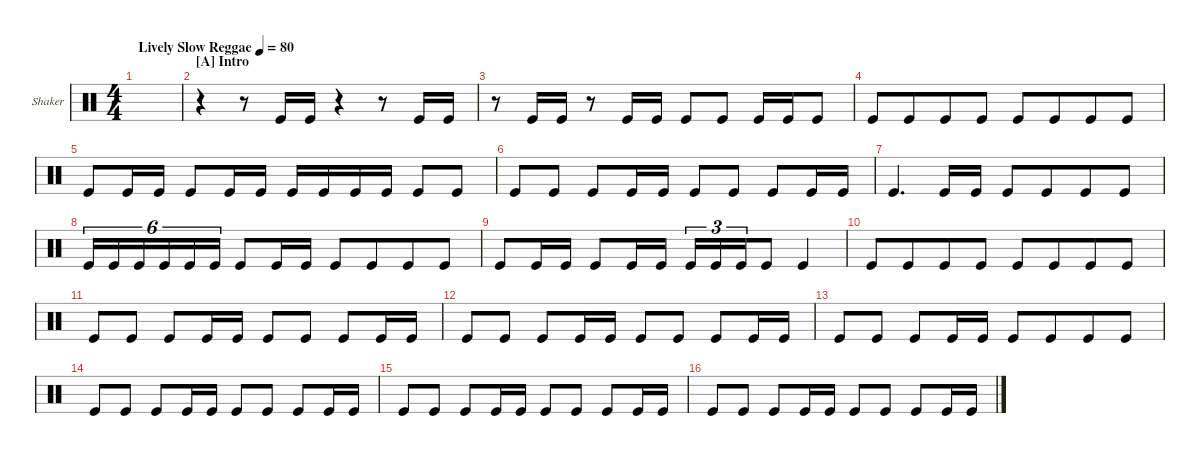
\defaultSystemsLayout 4
\hideDynamics
\bracketExtendMode groupsimilarinstruments
\firstSystemTrackNameOrientation horizontal
\otherSystemsTrackNameOrientation horizontal
\track ("Shaker" "Shaker") {multiBarRest instrument percussion}
\staff {score}
\articulation defaults
\ts (4 4)
\ac
\tempo (80 "Lively Slow Reggae")
\clef neutral
\ks c
|
\section ("A" "Intro")
r.4 r.8 "Kick (hit)".16 "Kick (hit)".16 r.4 r.8 "Kick (hit)".16 "Kick (hit)".16 |
r.8 "Kick (hit)".16 "Kick (hit)".16 r.8 "Kick (hit)".16 "Kick (hit)".16 "Kick (hit)".8 "Kick (hit)".8 "Kick (hit)".16 "Kick (hit)".16 "Kick (hit)".8 |
"Kick (hit)".8 "Kick (hit)".8{beam merge} "Kick (hit)".8 "Kick (hit)".8 "Kick (hit)".8 "Kick (hit)".8{beam merge} "Kick (hit)".8 "Kick (hit)".8 |
"Kick (hit)".8 "Kick (hit)".16 "Kick (hit)".16 "Kick (hit)".8 "Kick (hit)".16 "Kick (hit)".16 "Kick (hit)".16 "Kick (hit)".16 "Kick (hit)".16 "Kick (hit)".16 "Kick (hit)".8 "Kick (hit)".8 |
"Kick (hit)".8 "Kick (hit)".8 "Kick (hit)".8 "Kick (hit)".16 "Kick (hit)".16 "Kick (hit)".8 "Kick (hit)".8 "Kick (hit)".8 "Kick (hit)".16 "Kick (hit)".16 |
"Kick (hit)".4{d} "Kick (hit)".16 "Kick (hit)".16 "Kick (hit)".8 "Kick (hit)".8{beam merge} "Kick (hit)".8 "Kick (hit)".8 |
"Kick (hit)".16{tu (6 4)} "Kick (hit)".16{tu (6 4)} "Kick (hit)".16{tu (6 4)} "Kick (hit)".16{tu (6 4)} "Kick (hit)".16{tu (6 4)} "Kick (hit)".16{tu (6 4)} "Kick (hit)".8 "Kick (hit)".16 "Kick (hit)".16 "Kick (hit)".8 "Kick (hit)".8{beam merge} "Kick (hit)".8 "Kick (hit)".8 |
"Kick (hit)".8 "Kick (hit)".16 "Kick (hit)".16 "Kick (hit)".8 "Kick (hit)".16 "Kick (hit)".16 "Kick (hit)".16{tu (3 2)} "Kick (hit)".16{tu (3 2)} "Kick (hit)".16{tu (3 2) beam merge} "Kick (hit)".8 "Kick (hit)".4 |
"Kick (hit)".8 "Kick (hit)".8{beam merge} "Kick (hit)".8 "Kick (hit)".8 "Kick (hit)".8 "Kick (hit)".8{beam merge} "Kick (hit)".8 "Kick (hit)".8 |
"Kick (hit)".8 "Kick (hit)".8 "Kick (hit)".8 "Kick (hit)".16 "Kick (hit)".16 "Kick (hit)".8 "Kick (hit)".8 "Kick (hit)".8 "Kick (hit)".16 "Kick (hit)".16 |
"Kick (hit)".8 "Kick (hit)".8 "Kick (hit)".8 "Kick (hit)".16 "Kick (hit)".16 "Kick (hit)".8 "Kick (hit)".8 "Kick (hit)".8 "Kick (hit)".16 "Kick (hit)".16 |
"Kick (hit)".8 "Kick (hit)".8 "Kick (hit)".8 "Kick (hit)".16 "Kick (hit)".16 "Kick (hit)".8 "Kick (hit)".8{beam merge} "Kick (hit)".8 "Kick (hit)".8 |
"Kick (hit)".8 "Kick (hit)".8 "Kick (hit)".8 "Kick (hit)".16 "Kick (hit)".16 "Kick (hit)".8 "Kick (hit)".8 "Kick (hit)".8 "Kick (hit)".16 "Kick (hit)".16 |
"Kick (hit)".8 "Kick (hit)".8 "Kick (hit)".8 "Kick (hit)".16 "Kick (hit)".16 "Kick (hit)".8 "Kick (hit)".8 "Kick (hit)".8 "Kick (hit)".16 "Kick (hit)".16 |
"Kick (hit)".8 "Kick (hit)".8 "Kick (hit)".8 "Kick (hit)".16 "Kick (hit)".16 "Kick (hit)".8 "Kick (hit)".8 "Kick (hit)".8 "Kick (hit)".16 "Kick (hit)".16
